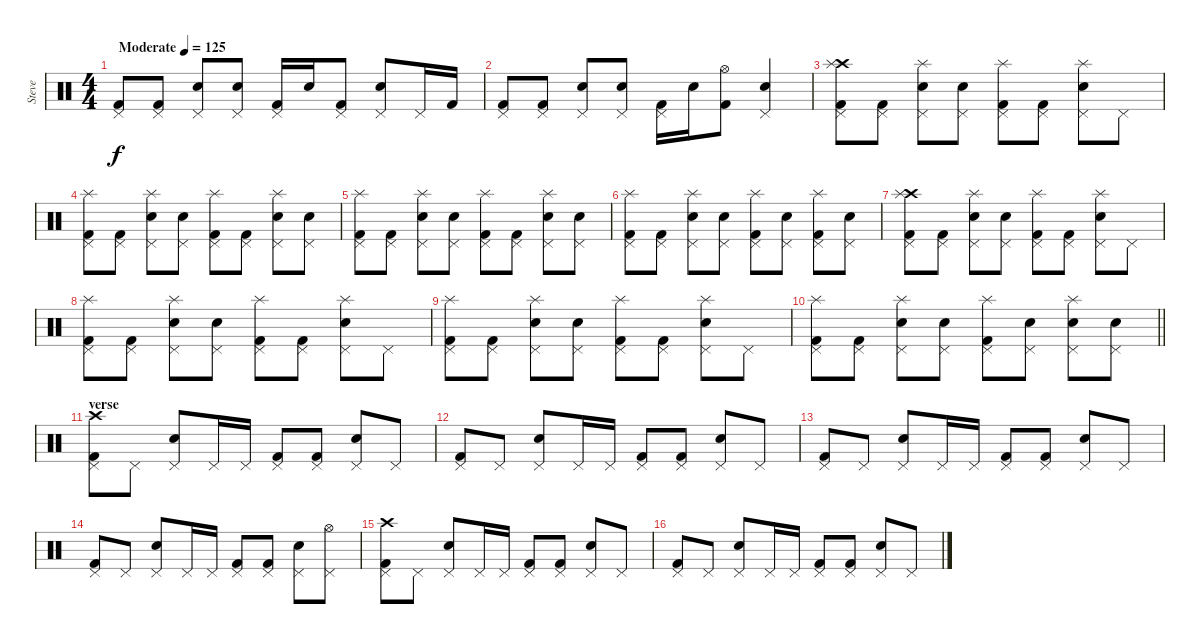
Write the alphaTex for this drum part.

\track ("Steve" "Steve") {instrument percussion}
\staff {score}
\articulation defaults
\ts (4 4)
\tempo (125 "Moderate")
\clef neutral
\ks c
("Pedal Hi-Hat (hit)" "Kick (hit) 2").8{dy f} ("Pedal Hi-Hat (hit)" "Kick (hit) 2").8 ("Pedal Hi-Hat (hit)" "Electric Snare (hit)").8 ("Pedal Hi-Hat (hit)" "Electric Snare (hit)").8 ("Pedal Hi-Hat (hit)" "Kick (hit) 2").16 "Electric Snare (hit)".16 ("Pedal Hi-Hat (hit)" "Kick (hit) 2").8 ("Pedal Hi-Hat (hit)" "Electric Snare (hit)").8 "Pedal Hi-Hat (hit)".16 "Kick (hit) 2".16 |
("Pedal Hi-Hat (hit)" "Kick (hit) 2").8 ("Pedal Hi-Hat (hit)" "Kick (hit) 2").8 ("Pedal Hi-Hat (hit)" "Electric Snare (hit)").8 ("Pedal Hi-Hat (hit)" "Electric Snare (hit)").8 ("Pedal Hi-Hat (hit)" "Kick (hit) 2").16 "Electric Snare (hit)".16 ("Hi-Hat (open)" "Kick (hit) 2").8 ("Pedal Hi-Hat (hit)" "Electric Snare (hit)").4 |
("Pedal Hi-Hat (hit)" "Crash high (hit)" "Splash (hit)" "Kick (hit) 2").8 ("Pedal Hi-Hat (hit)" "Kick (hit) 2").8 ("Pedal Hi-Hat (hit)" "Splash (hit)" "Electric Snare (hit)").8 ("Pedal Hi-Hat (hit)" "Electric Snare (hit)").8 ("Pedal Hi-Hat (hit)" "Splash (hit)" "Kick (hit) 2").8 ("Pedal Hi-Hat (hit)" "Kick (hit) 2").8 ("Pedal Hi-Hat (hit)" "Splash (hit)" "Electric Snare (hit)").8 "Pedal Hi-Hat (hit)".8 |
("Pedal Hi-Hat (hit)" "Splash (hit)" "Kick (hit) 2").8 ("Pedal Hi-Hat (hit)" "Kick (hit) 2").8 ("Pedal Hi-Hat (hit)" "Splash (hit)" "Electric Snare (hit)").8 ("Pedal Hi-Hat (hit)" "Electric Snare (hit)").8 ("Pedal Hi-Hat (hit)" "Splash (hit)" "Kick (hit) 2").8 ("Pedal Hi-Hat (hit)" "Kick (hit) 2").8 ("Pedal Hi-Hat (hit)" "Splash (hit)" "Electric Snare (hit)").8 ("Pedal Hi-Hat (hit)" "Electric Snare (hit)").8 |
("Pedal Hi-Hat (hit)" "Splash (hit)" "Kick (hit) 2").8 ("Pedal Hi-Hat (hit)" "Kick (hit) 2").8 ("Pedal Hi-Hat (hit)" "Splash (hit)" "Electric Snare (hit)").8 ("Pedal Hi-Hat (hit)" "Electric Snare (hit)").8 ("Pedal Hi-Hat (hit)" "Splash (hit)" "Kick (hit) 2").8 ("Pedal Hi-Hat (hit)" "Kick (hit) 2").8 ("Pedal Hi-Hat (hit)" "Splash (hit)" "Electric Snare (hit)").8 ("Pedal Hi-Hat (hit)" "Electric Snare (hit)").8 |
("Pedal Hi-Hat (hit)" "Splash (hit)" "Kick (hit) 2").8 ("Pedal Hi-Hat (hit)" "Kick (hit) 2").8 ("Pedal Hi-Hat (hit)" "Splash (hit)" "Electric Snare (hit)").8 ("Pedal Hi-Hat (hit)" "Electric Snare (hit)").8 ("Pedal Hi-Hat (hit)" "Splash (hit)" "Kick (hit) 2").8 ("Pedal Hi-Hat (hit)" "Electric Snare (hit)").8 ("Pedal Hi-Hat (hit)" "Splash (hit)" "Kick (hit) 2").8 ("Pedal Hi-Hat (hit)" "Electric Snare (hit)").8 |
("Pedal Hi-Hat (hit)" "Crash high (hit)" "Splash (hit)" "Kick (hit) 2").8 ("Pedal Hi-Hat (hit)" "Kick (hit) 2").8 ("Pedal Hi-Hat (hit)" "Splash (hit)" "Electric Snare (hit)").8 ("Pedal Hi-Hat (hit)" "Electric Snare (hit)").8 ("Pedal Hi-Hat (hit)" "Splash (hit)" "Kick (hit) 2").8 ("Pedal Hi-Hat (hit)" "Kick (hit) 2").8 ("Pedal Hi-Hat (hit)" "Splash (hit)" "Electric Snare (hit)").8 "Pedal Hi-Hat (hit)".8 |
("Pedal Hi-Hat (hit)" "Splash (hit)" "Kick (hit) 2").8 ("Pedal Hi-Hat (hit)" "Kick (hit) 2").8 ("Pedal Hi-Hat (hit)" "Splash (hit)" "Electric Snare (hit)").8 ("Pedal Hi-Hat (hit)" "Electric Snare (hit)").8 ("Pedal Hi-Hat (hit)" "Splash (hit)" "Kick (hit) 2").8 ("Pedal Hi-Hat (hit)" "Kick (hit) 2").8 ("Pedal Hi-Hat (hit)" "Splash (hit)" "Electric Snare (hit)").8 "Pedal Hi-Hat (hit)".8 |
("Pedal Hi-Hat (hit)" "Splash (hit)" "Kick (hit) 2").8 ("Pedal Hi-Hat (hit)" "Kick (hit) 2").8 ("Pedal Hi-Hat (hit)" "Splash (hit)" "Electric Snare (hit)").8 ("Pedal Hi-Hat (hit)" "Electric Snare (hit)").8 ("Pedal Hi-Hat (hit)" "Splash (hit)" "Kick (hit) 2").8 ("Pedal Hi-Hat (hit)" "Kick (hit) 2").8 ("Pedal Hi-Hat (hit)" "Splash (hit)" "Electric Snare (hit)").8 "Pedal Hi-Hat (hit)".8 |
\barLineRight lightlight
("Pedal Hi-Hat (hit)" "Splash (hit)" "Kick (hit) 2").8 ("Pedal Hi-Hat (hit)" "Kick (hit) 2").8 ("Pedal Hi-Hat (hit)" "Splash (hit)" "Electric Snare (hit)").8 ("Pedal Hi-Hat (hit)" "Electric Snare (hit)").8 ("Pedal Hi-Hat (hit)" "Splash (hit)" "Kick (hit) 2").8 ("Pedal Hi-Hat (hit)" "Electric Snare (hit)").8 ("Pedal Hi-Hat (hit)" "Splash (hit)" "Electric Snare (hit)").8 ("Pedal Hi-Hat (hit)" "Electric Snare (hit)").8 |
\section ("" "verse")
("Pedal Hi-Hat (hit)" "Crash high (hit)" "Kick (hit) 2").8 "Pedal Hi-Hat (hit)".8 ("Pedal Hi-Hat (hit)" "Electric Snare (hit)").8 "Pedal Hi-Hat (hit)".16 "Pedal Hi-Hat (hit)".16 ("Pedal Hi-Hat (hit)" "Kick (hit) 2").8 ("Pedal Hi-Hat (hit)" "Kick (hit) 2").8 ("Pedal Hi-Hat (hit)" "Electric Snare (hit)").8 "Pedal Hi-Hat (hit)".8 |
("Pedal Hi-Hat (hit)" "Kick (hit) 2").8 "Pedal Hi-Hat (hit)".8 ("Pedal Hi-Hat (hit)" "Electric Snare (hit)").8 "Pedal Hi-Hat (hit)".16 "Pedal Hi-Hat (hit)".16 ("Pedal Hi-Hat (hit)" "Kick (hit) 2").8 ("Pedal Hi-Hat (hit)" "Kick (hit) 2").8 ("Pedal Hi-Hat (hit)" "Electric Snare (hit)").8 "Pedal Hi-Hat (hit)".8 |
("Pedal Hi-Hat (hit)" "Kick (hit) 2").8 "Pedal Hi-Hat (hit)".8 ("Pedal Hi-Hat (hit)" "Electric Snare (hit)").8 "Pedal Hi-Hat (hit)".16 "Pedal Hi-Hat (hit)".16 ("Pedal Hi-Hat (hit)" "Kick (hit) 2").8 ("Pedal Hi-Hat (hit)" "Kick (hit) 2").8 ("Pedal Hi-Hat (hit)" "Electric Snare (hit)").8 "Pedal Hi-Hat (hit)".8 |
("Pedal Hi-Hat (hit)" "Kick (hit) 2").8 "Pedal Hi-Hat (hit)".8 ("Pedal Hi-Hat (hit)" "Electric Snare (hit)").8 "Pedal Hi-Hat (hit)".16 "Pedal Hi-Hat (hit)".16 ("Pedal Hi-Hat (hit)" "Kick (hit) 2").8 ("Pedal Hi-Hat (hit)" "Kick (hit) 2").8 ("Pedal Hi-Hat (hit)" "Electric Snare (hit)").8 ("Pedal Hi-Hat (hit)" "Hi-Hat (open)").8 |
("Pedal Hi-Hat (hit)" "Crash high (hit)" "Kick (hit) 2").8 "Pedal Hi-Hat (hit)".8 ("Pedal Hi-Hat (hit)" "Electric Snare (hit)").8 "Pedal Hi-Hat (hit)".16 "Pedal Hi-Hat (hit)".16 ("Pedal Hi-Hat (hit)" "Kick (hit) 2").8 ("Pedal Hi-Hat (hit)" "Kick (hit) 2").8 ("Pedal Hi-Hat (hit)" "Electric Snare (hit)").8 "Pedal Hi-Hat (hit)".8 |
("Pedal Hi-Hat (hit)" "Kick (hit) 2").8 "Pedal Hi-Hat (hit)".8 ("Pedal Hi-Hat (hit)" "Electric Snare (hit)").8 "Pedal Hi-Hat (hit)".16 "Pedal Hi-Hat (hit)".16 ("Pedal Hi-Hat (hit)" "Kick (hit) 2").8 ("Pedal Hi-Hat (hit)" "Kick (hit) 2").8 ("Pedal Hi-Hat (hit)" "Electric Snare (hit)").8 "Pedal Hi-Hat (hit)".8
